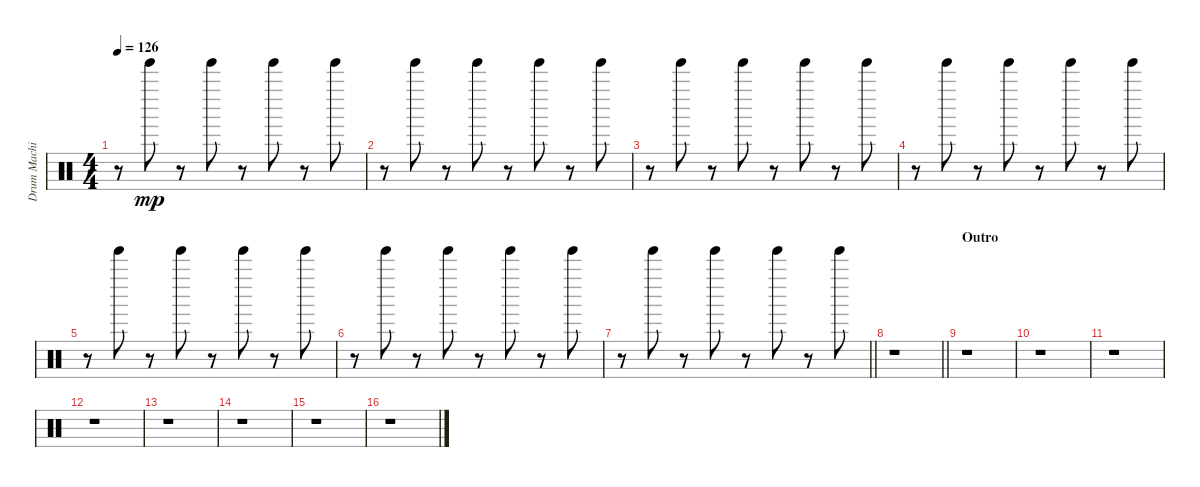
\track ("Drum Machine" "Drum Machi") {instrument percussion}
\staff {score}
\articulation defaults
\ts (4 4)
\tempo 126
\clef neutral
\ks c
r.8{dy mp} "Tinkle Bell (hit)".8 r.8 "Tinkle Bell (hit)".8 r.8 "Tinkle Bell (hit)".8 r.8 "Tinkle Bell (hit)".8 |
r.8 "Tinkle Bell (hit)".8 r.8 "Tinkle Bell (hit)".8 r.8 "Tinkle Bell (hit)".8 r.8 "Tinkle Bell (hit)".8 |
r.8 "Tinkle Bell (hit)".8 r.8 "Tinkle Bell (hit)".8 r.8 "Tinkle Bell (hit)".8 r.8 "Tinkle Bell (hit)".8 |
r.8 "Tinkle Bell (hit)".8 r.8 "Tinkle Bell (hit)".8 r.8 "Tinkle Bell (hit)".8 r.8 "Tinkle Bell (hit)".8 |
r.8 "Tinkle Bell (hit)".8 r.8 "Tinkle Bell (hit)".8 r.8 "Tinkle Bell (hit)".8 r.8 "Tinkle Bell (hit)".8 |
r.8 "Tinkle Bell (hit)".8 r.8 "Tinkle Bell (hit)".8 r.8 "Tinkle Bell (hit)".8 r.8 "Tinkle Bell (hit)".8 |
\barLineRight lightlight
r.8 "Tinkle Bell (hit)".8 r.8 "Tinkle Bell (hit)".8 r.8 "Tinkle Bell (hit)".8 r.8 "Tinkle Bell (hit)".8 |
\section ("" "")
\barLineRight lightlight
r.1 |
\section ("" "Outro")
r.1 |
r.1 |
r.1 |
r.1 |
r.1 |
r.1 |
r.1 |
r.1
